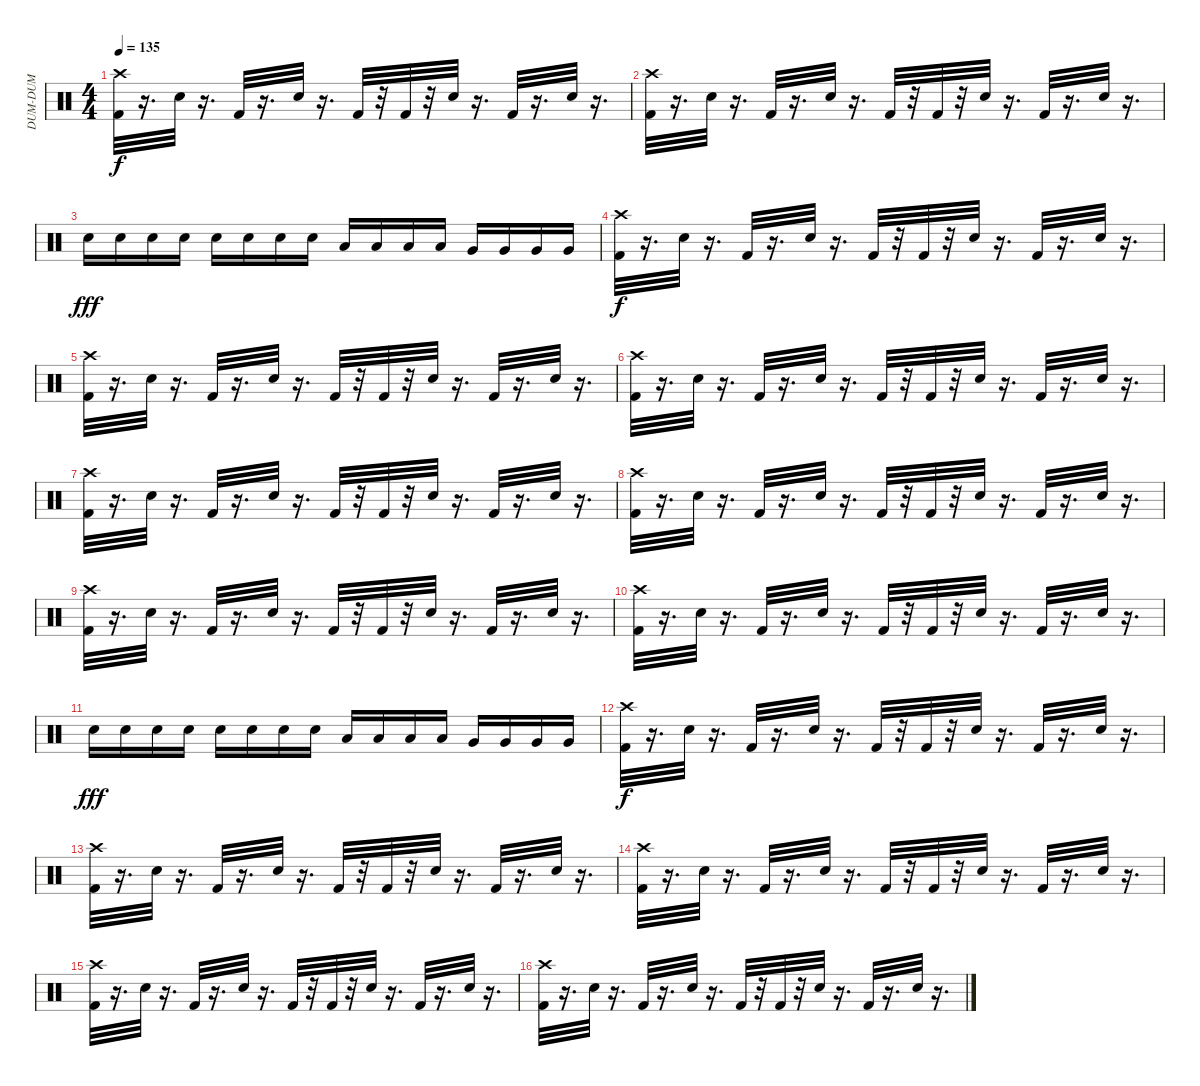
\track ("DUM-DUM" "DUM-DUM") {instrument percussion}
\staff {score}
\articulation defaults
\ts (4 4)
\tempo 135
\clef neutral
\ks c
("Kick (hit) 2" "Crash high (hit)").32{dy f} r.16{d} "Electric Snare (hit)".32 r.16{d} "Kick (hit) 2".32 r.16{d} "Electric Snare (hit)".32 r.16{d} "Kick (hit) 2".32 r.32 "Kick (hit) 2".32 r.32 "Electric Snare (hit)".32 r.16{d} "Kick (hit) 2".32 r.16{d} "Electric Snare (hit)".32 r.16{d} |
("Kick (hit) 2" "Crash high (hit)").32 r.16{d} "Electric Snare (hit)".32 r.16{d} "Kick (hit) 2".32 r.16{d} "Electric Snare (hit)".32 r.16{d} "Kick (hit) 2".32 r.32 "Kick (hit) 2".32 r.32 "Electric Snare (hit)".32 r.16{d} "Kick (hit) 2".32 r.16{d} "Electric Snare (hit)".32 r.16{d} |
"Electric Snare (hit)".16{dy fff} "Electric Snare (hit)".16 "Electric Snare (hit)".16 "Electric Snare (hit)".16 "Electric Snare (hit)".16 "Electric Snare (hit)".16 "Electric Snare (hit)".16 "Electric Snare (hit)".16 "Low Tom (hit)".16 "Low Tom (hit)".16 "Low Tom (hit)".16 "Low Tom (hit)".16 "Very Low Tom (hit)".16 "Very Low Tom (hit)".16 "Very Low Tom (hit)".16 "Very Low Tom (hit)".16 |
("Kick (hit) 2" "Crash high (hit)").32{dy f} r.16{d} "Electric Snare (hit)".32 r.16{d} "Kick (hit) 2".32 r.16{d} "Electric Snare (hit)".32 r.16{d} "Kick (hit) 2".32 r.32 "Kick (hit) 2".32 r.32 "Electric Snare (hit)".32 r.16{d} "Kick (hit) 2".32 r.16{d} "Electric Snare (hit)".32 r.16{d} |
("Kick (hit) 2" "Crash high (hit)").32 r.16{d} "Electric Snare (hit)".32 r.16{d} "Kick (hit) 2".32 r.16{d} "Electric Snare (hit)".32 r.16{d} "Kick (hit) 2".32 r.32 "Kick (hit) 2".32 r.32 "Electric Snare (hit)".32 r.16{d} "Kick (hit) 2".32 r.16{d} "Electric Snare (hit)".32 r.16{d} |
("Kick (hit) 2" "Crash high (hit)").32 r.16{d} "Electric Snare (hit)".32 r.16{d} "Kick (hit) 2".32 r.16{d} "Electric Snare (hit)".32 r.16{d} "Kick (hit) 2".32 r.32 "Kick (hit) 2".32 r.32 "Electric Snare (hit)".32 r.16{d} "Kick (hit) 2".32 r.16{d} "Electric Snare (hit)".32 r.16{d} |
("Kick (hit) 2" "Crash high (hit)").32 r.16{d} "Electric Snare (hit)".32 r.16{d} "Kick (hit) 2".32 r.16{d} "Electric Snare (hit)".32 r.16{d} "Kick (hit) 2".32 r.32 "Kick (hit) 2".32 r.32 "Electric Snare (hit)".32 r.16{d} "Kick (hit) 2".32 r.16{d} "Electric Snare (hit)".32 r.16{d} |
("Kick (hit) 2" "Crash high (hit)").32 r.16{d} "Electric Snare (hit)".32 r.16{d} "Kick (hit) 2".32 r.16{d} "Electric Snare (hit)".32 r.16{d} "Kick (hit) 2".32 r.32 "Kick (hit) 2".32 r.32 "Electric Snare (hit)".32 r.16{d} "Kick (hit) 2".32 r.16{d} "Electric Snare (hit)".32 r.16{d} |
("Kick (hit) 2" "Crash high (hit)").32 r.16{d} "Electric Snare (hit)".32 r.16{d} "Kick (hit) 2".32 r.16{d} "Electric Snare (hit)".32 r.16{d} "Kick (hit) 2".32 r.32 "Kick (hit) 2".32 r.32 "Electric Snare (hit)".32 r.16{d} "Kick (hit) 2".32 r.16{d} "Electric Snare (hit)".32 r.16{d} |
("Kick (hit) 2" "Crash high (hit)").32 r.16{d} "Electric Snare (hit)".32 r.16{d} "Kick (hit) 2".32 r.16{d} "Electric Snare (hit)".32 r.16{d} "Kick (hit) 2".32 r.32 "Kick (hit) 2".32 r.32 "Electric Snare (hit)".32 r.16{d} "Kick (hit) 2".32 r.16{d} "Electric Snare (hit)".32 r.16{d} |
"Electric Snare (hit)".16{dy fff} "Electric Snare (hit)".16 "Electric Snare (hit)".16 "Electric Snare (hit)".16 "Electric Snare (hit)".16 "Electric Snare (hit)".16 "Electric Snare (hit)".16 "Electric Snare (hit)".16 "Low Tom (hit)".16 "Low Tom (hit)".16 "Low Tom (hit)".16 "Low Tom (hit)".16 "Very Low Tom (hit)".16 "Very Low Tom (hit)".16 "Very Low Tom (hit)".16 "Very Low Tom (hit)".16 |
("Kick (hit) 2" "Crash high (hit)").32{dy f} r.16{d} "Electric Snare (hit)".32 r.16{d} "Kick (hit) 2".32 r.16{d} "Electric Snare (hit)".32 r.16{d} "Kick (hit) 2".32 r.32 "Kick (hit) 2".32 r.32 "Electric Snare (hit)".32 r.16{d} "Kick (hit) 2".32 r.16{d} "Electric Snare (hit)".32 r.16{d} |
("Kick (hit) 2" "Crash high (hit)").32 r.16{d} "Electric Snare (hit)".32 r.16{d} "Kick (hit) 2".32 r.16{d} "Electric Snare (hit)".32 r.16{d} "Kick (hit) 2".32 r.32 "Kick (hit) 2".32 r.32 "Electric Snare (hit)".32 r.16{d} "Kick (hit) 2".32 r.16{d} "Electric Snare (hit)".32 r.16{d} |
("Kick (hit) 2" "Crash high (hit)").32 r.16{d} "Electric Snare (hit)".32 r.16{d} "Kick (hit) 2".32 r.16{d} "Electric Snare (hit)".32 r.16{d} "Kick (hit) 2".32 r.32 "Kick (hit) 2".32 r.32 "Electric Snare (hit)".32 r.16{d} "Kick (hit) 2".32 r.16{d} "Electric Snare (hit)".32 r.16{d} |
("Kick (hit) 2" "Crash high (hit)").32 r.16{d} "Electric Snare (hit)".32 r.16{d} "Kick (hit) 2".32 r.16{d} "Electric Snare (hit)".32 r.16{d} "Kick (hit) 2".32 r.32 "Kick (hit) 2".32 r.32 "Electric Snare (hit)".32 r.16{d} "Kick (hit) 2".32 r.16{d} "Electric Snare (hit)".32 r.16{d} |
("Kick (hit) 2" "Crash high (hit)").32 r.16{d} "Electric Snare (hit)".32 r.16{d} "Kick (hit) 2".32 r.16{d} "Electric Snare (hit)".32 r.16{d} "Kick (hit) 2".32 r.32 "Kick (hit) 2".32 r.32 "Electric Snare (hit)".32 r.16{d} "Kick (hit) 2".32 r.16{d} "Electric Snare (hit)".32 r.16{d}
